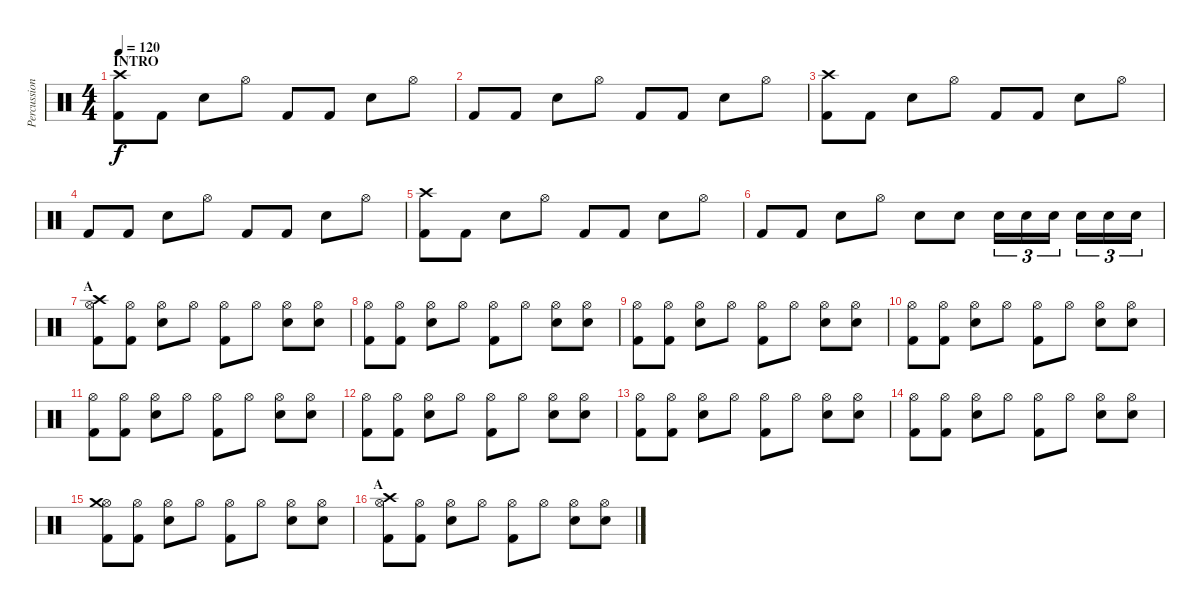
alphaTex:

\track ("Percussion" "Percussion") {instrument percussion}
\staff {score}
\articulation defaults
\ts (4 4)
\section ("" "INTRO")
\tempo 120
\clef neutral
\ks c
("Kick (hit) 2" "Crash high (hit)").8{dy f} "Kick (hit) 2".8 "Snare (hit) 2".8 "Hi-Hat (open)".8 "Kick (hit) 2".8 "Kick (hit) 2".8 "Snare (hit) 2".8 "Hi-Hat (open)".8 |
"Kick (hit) 2".8 "Kick (hit) 2".8 "Snare (hit) 2".8 "Hi-Hat (open)".8 "Kick (hit) 2".8 "Kick (hit) 2".8 "Snare (hit) 2".8 "Hi-Hat (open)".8 |
("Kick (hit) 2" "Crash high (hit)").8 "Kick (hit) 2".8 "Snare (hit) 2".8 "Hi-Hat (open)".8 "Kick (hit) 2".8 "Kick (hit) 2".8 "Snare (hit) 2".8 "Hi-Hat (open)".8 |
"Kick (hit) 2".8 "Kick (hit) 2".8 "Snare (hit) 2".8 "Hi-Hat (open)".8 "Kick (hit) 2".8 "Kick (hit) 2".8 "Snare (hit) 2".8 "Hi-Hat (open)".8 |
("Kick (hit) 2" "Crash high (hit)").8 "Kick (hit) 2".8 "Snare (hit) 2".8 "Hi-Hat (open)".8 "Kick (hit) 2".8 "Kick (hit) 2".8 "Snare (hit) 2".8 "Hi-Hat (open)".8 |
"Kick (hit) 2".8 "Kick (hit) 2".8 "Snare (hit) 2".8 "Hi-Hat (open)".8 "Snare (hit) 2".8 "Snare (hit) 2".8 "Snare (hit) 2".16{tu (3 2)} "Snare (hit) 2".16{tu (3 2)} "Snare (hit) 2".16{tu (3 2)} "Snare (hit) 2".16{tu (3 2)} "Snare (hit) 2".16{tu (3 2)} "Snare (hit) 2".16{tu (3 2)} |
\section ("" "A")
("Kick (hit) 2" "Hi-Hat (open)" "Crash high (hit)").8 ("Kick (hit) 2" "Hi-Hat (open)").8 ("Snare (hit) 2" "Hi-Hat (open)").8 "Hi-Hat (open)".8 ("Kick (hit) 2" "Hi-Hat (open)").8 "Hi-Hat (open)".8 ("Snare (hit) 2" "Hi-Hat (open)").8 ("Snare (hit) 2" "Hi-Hat (open)").8 |
("Kick (hit) 2" "Hi-Hat (open)").8 ("Kick (hit) 2" "Hi-Hat (open)").8 ("Snare (hit) 2" "Hi-Hat (open)").8 "Hi-Hat (open)".8 ("Kick (hit) 2" "Hi-Hat (open)").8 "Hi-Hat (open)".8 ("Snare (hit) 2" "Hi-Hat (open)").8 ("Snare (hit) 2" "Hi-Hat (open)").8 |
("Kick (hit) 2" "Hi-Hat (open)").8 ("Kick (hit) 2" "Hi-Hat (open)").8 ("Snare (hit) 2" "Hi-Hat (open)").8 "Hi-Hat (open)".8 ("Kick (hit) 2" "Hi-Hat (open)").8 "Hi-Hat (open)".8 ("Snare (hit) 2" "Hi-Hat (open)").8 ("Snare (hit) 2" "Hi-Hat (open)").8 |
("Kick (hit) 2" "Hi-Hat (open)").8 ("Kick (hit) 2" "Hi-Hat (open)").8 ("Snare (hit) 2" "Hi-Hat (open)").8 "Hi-Hat (open)".8 ("Kick (hit) 2" "Hi-Hat (open)").8 "Hi-Hat (open)".8 ("Snare (hit) 2" "Hi-Hat (open)").8 ("Snare (hit) 2" "Hi-Hat (open)").8 |
("Kick (hit) 2" "Hi-Hat (open)").8 ("Kick (hit) 2" "Hi-Hat (open)").8 ("Snare (hit) 2" "Hi-Hat (open)").8 "Hi-Hat (open)".8 ("Kick (hit) 2" "Hi-Hat (open)").8 "Hi-Hat (open)".8 ("Snare (hit) 2" "Hi-Hat (open)").8 ("Snare (hit) 2" "Hi-Hat (open)").8 |
("Kick (hit) 2" "Hi-Hat (open)").8 ("Kick (hit) 2" "Hi-Hat (open)").8 ("Snare (hit) 2" "Hi-Hat (open)").8 "Hi-Hat (open)".8 ("Kick (hit) 2" "Hi-Hat (open)").8 "Hi-Hat (open)".8 ("Snare (hit) 2" "Hi-Hat (open)").8 ("Snare (hit) 2" "Hi-Hat (open)").8 |
("Kick (hit) 2" "Hi-Hat (open)").8 ("Kick (hit) 2" "Hi-Hat (open)").8 ("Snare (hit) 2" "Hi-Hat (open)").8 "Hi-Hat (open)".8 ("Kick (hit) 2" "Hi-Hat (open)").8 "Hi-Hat (open)".8 ("Snare (hit) 2" "Hi-Hat (open)").8 ("Snare (hit) 2" "Hi-Hat (open)").8 |
("Kick (hit) 2" "Hi-Hat (open)").8 ("Kick (hit) 2" "Hi-Hat (open)").8 ("Snare (hit) 2" "Hi-Hat (open)").8 "Hi-Hat (open)".8 ("Kick (hit) 2" "Hi-Hat (open)").8 "Hi-Hat (open)".8 ("Snare (hit) 2" "Hi-Hat (open)").8 ("Snare (hit) 2" "Hi-Hat (open)").8 |
("Kick (hit) 2" "Hi-Hat (open)" "Crash medium (hit)").8 ("Kick (hit) 2" "Hi-Hat (open)").8 ("Snare (hit) 2" "Hi-Hat (open)").8 "Hi-Hat (open)".8 ("Kick (hit) 2" "Hi-Hat (open)").8 "Hi-Hat (open)".8 ("Snare (hit) 2" "Hi-Hat (open)").8 ("Snare (hit) 2" "Hi-Hat (open)").8 |
\section ("" "A")
("Kick (hit) 2" "Hi-Hat (open)" "Crash high (hit)").8 ("Kick (hit) 2" "Hi-Hat (open)").8 ("Snare (hit) 2" "Hi-Hat (open)").8 "Hi-Hat (open)".8 ("Kick (hit) 2" "Hi-Hat (open)").8 "Hi-Hat (open)".8 ("Snare (hit) 2" "Hi-Hat (open)").8 ("Snare (hit) 2" "Hi-Hat (open)").8
